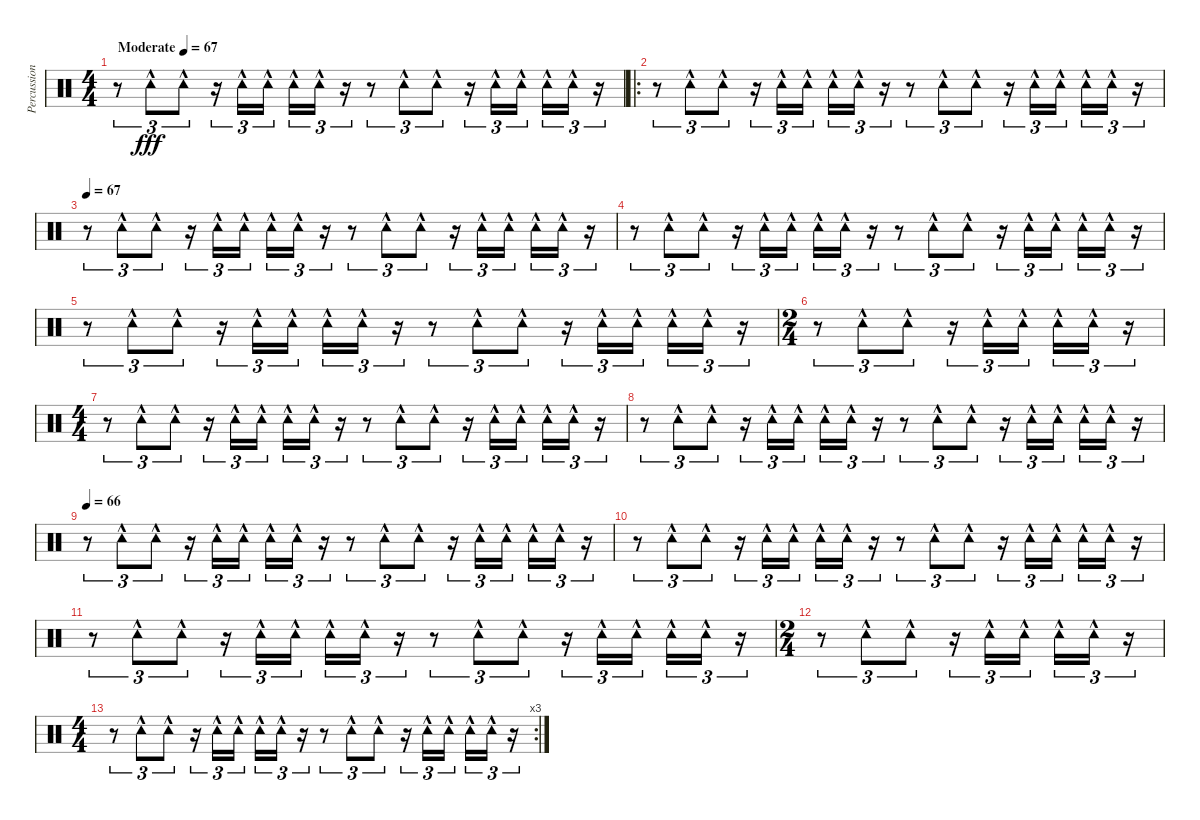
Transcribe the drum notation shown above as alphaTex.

\track ("Percussion" "Percussion") {instrument percussion bank 255}
\staff {score}
\articulation defaults
\ts (4 4)
\tempo (67 "Moderate")
\clef neutral
\ks c
r.8{tu (3 2) dy fff} "Tambourine (hit)"{hac}.8{tu (3 2)} "Tambourine (hit)"{hac}.8{tu (3 2)} r.16{tu (3 2)} "Tambourine (hit)"{hac}.16{tu (3 2)} "Tambourine (hit)"{hac}.16{tu (3 2) beam splitsecondary} "Tambourine (hit)"{hac}.16{tu (3 2)} "Tambourine (hit)"{hac}.16{tu (3 2)} r.16{tu (3 2)} r.8{tu (3 2)} "Tambourine (hit)"{hac}.8{tu (3 2)} "Tambourine (hit)"{hac}.8{tu (3 2)} r.16{tu (3 2)} "Tambourine (hit)"{hac}.16{tu (3 2)} "Tambourine (hit)"{hac}.16{tu (3 2) beam splitsecondary} "Tambourine (hit)"{hac}.16{tu (3 2)} "Tambourine (hit)"{hac}.16{tu (3 2)} r.16{tu (3 2)} |
\ro
r.8{tu (3 2)} "Tambourine (hit)"{hac}.8{tu (3 2)} "Tambourine (hit)"{hac}.8{tu (3 2)} r.16{tu (3 2)} "Tambourine (hit)"{hac}.16{tu (3 2)} "Tambourine (hit)"{hac}.16{tu (3 2) beam splitsecondary} "Tambourine (hit)"{hac}.16{tu (3 2)} "Tambourine (hit)"{hac}.16{tu (3 2)} r.16{tu (3 2)} r.8{tu (3 2)} "Tambourine (hit)"{hac}.8{tu (3 2)} "Tambourine (hit)"{hac}.8{tu (3 2)} r.16{tu (3 2)} "Tambourine (hit)"{hac}.16{tu (3 2)} "Tambourine (hit)"{hac}.16{tu (3 2) beam splitsecondary} "Tambourine (hit)"{hac}.16{tu (3 2)} "Tambourine (hit)"{hac}.16{tu (3 2)} r.16{tu (3 2)} |
\tempo 67
r.8{tu (3 2)} "Tambourine (hit)"{hac}.8{tu (3 2)} "Tambourine (hit)"{hac}.8{tu (3 2)} r.16{tu (3 2)} "Tambourine (hit)"{hac}.16{tu (3 2)} "Tambourine (hit)"{hac}.16{tu (3 2) beam splitsecondary} "Tambourine (hit)"{hac}.16{tu (3 2)} "Tambourine (hit)"{hac}.16{tu (3 2)} r.16{tu (3 2)} r.8{tu (3 2)} "Tambourine (hit)"{hac}.8{tu (3 2)} "Tambourine (hit)"{hac}.8{tu (3 2)} r.16{tu (3 2)} "Tambourine (hit)"{hac}.16{tu (3 2)} "Tambourine (hit)"{hac}.16{tu (3 2) beam splitsecondary} "Tambourine (hit)"{hac}.16{tu (3 2)} "Tambourine (hit)"{hac}.16{tu (3 2)} r.16{tu (3 2)} |
r.8{tu (3 2)} "Tambourine (hit)"{hac}.8{tu (3 2)} "Tambourine (hit)"{hac}.8{tu (3 2)} r.16{tu (3 2)} "Tambourine (hit)"{hac}.16{tu (3 2)} "Tambourine (hit)"{hac}.16{tu (3 2) beam splitsecondary} "Tambourine (hit)"{hac}.16{tu (3 2)} "Tambourine (hit)"{hac}.16{tu (3 2)} r.16{tu (3 2)} r.8{tu (3 2)} "Tambourine (hit)"{hac}.8{tu (3 2)} "Tambourine (hit)"{hac}.8{tu (3 2)} r.16{tu (3 2)} "Tambourine (hit)"{hac}.16{tu (3 2)} "Tambourine (hit)"{hac}.16{tu (3 2) beam splitsecondary} "Tambourine (hit)"{hac}.16{tu (3 2)} "Tambourine (hit)"{hac}.16{tu (3 2)} r.16{tu (3 2)} |
r.8{tu (3 2)} "Tambourine (hit)"{hac}.8{tu (3 2)} "Tambourine (hit)"{hac}.8{tu (3 2)} r.16{tu (3 2)} "Tambourine (hit)"{hac}.16{tu (3 2)} "Tambourine (hit)"{hac}.16{tu (3 2) beam splitsecondary} "Tambourine (hit)"{hac}.16{tu (3 2)} "Tambourine (hit)"{hac}.16{tu (3 2)} r.16{tu (3 2)} r.8{tu (3 2)} "Tambourine (hit)"{hac}.8{tu (3 2)} "Tambourine (hit)"{hac}.8{tu (3 2)} r.16{tu (3 2)} "Tambourine (hit)"{hac}.16{tu (3 2)} "Tambourine (hit)"{hac}.16{tu (3 2) beam splitsecondary} "Tambourine (hit)"{hac}.16{tu (3 2)} "Tambourine (hit)"{hac}.16{tu (3 2)} r.16{tu (3 2)} |
\ts (2 4)
r.8{tu (3 2)} "Tambourine (hit)"{hac}.8{tu (3 2)} "Tambourine (hit)"{hac}.8{tu (3 2)} r.16{tu (3 2)} "Tambourine (hit)"{hac}.16{tu (3 2)} "Tambourine (hit)"{hac}.16{tu (3 2) beam splitsecondary} "Tambourine (hit)"{hac}.16{tu (3 2)} "Tambourine (hit)"{hac}.16{tu (3 2)} r.16{tu (3 2)} |
\ts (4 4)
r.8{tu (3 2)} "Tambourine (hit)"{hac}.8{tu (3 2)} "Tambourine (hit)"{hac}.8{tu (3 2)} r.16{tu (3 2)} "Tambourine (hit)"{hac}.16{tu (3 2)} "Tambourine (hit)"{hac}.16{tu (3 2) beam splitsecondary} "Tambourine (hit)"{hac}.16{tu (3 2)} "Tambourine (hit)"{hac}.16{tu (3 2)} r.16{tu (3 2)} r.8{tu (3 2)} "Tambourine (hit)"{hac}.8{tu (3 2)} "Tambourine (hit)"{hac}.8{tu (3 2)} r.16{tu (3 2)} "Tambourine (hit)"{hac}.16{tu (3 2)} "Tambourine (hit)"{hac}.16{tu (3 2) beam splitsecondary} "Tambourine (hit)"{hac}.16{tu (3 2)} "Tambourine (hit)"{hac}.16{tu (3 2)} r.16{tu (3 2)} |
r.8{tu (3 2)} "Tambourine (hit)"{hac}.8{tu (3 2)} "Tambourine (hit)"{hac}.8{tu (3 2)} r.16{tu (3 2)} "Tambourine (hit)"{hac}.16{tu (3 2)} "Tambourine (hit)"{hac}.16{tu (3 2) beam splitsecondary} "Tambourine (hit)"{hac}.16{tu (3 2)} "Tambourine (hit)"{hac}.16{tu (3 2)} r.16{tu (3 2)} r.8{tu (3 2)} "Tambourine (hit)"{hac}.8{tu (3 2)} "Tambourine (hit)"{hac}.8{tu (3 2)} r.16{tu (3 2)} "Tambourine (hit)"{hac}.16{tu (3 2)} "Tambourine (hit)"{hac}.16{tu (3 2) beam splitsecondary} "Tambourine (hit)"{hac}.16{tu (3 2)} "Tambourine (hit)"{hac}.16{tu (3 2)} r.16{tu (3 2)} |
\tempo 66
r.8{tu (3 2)} "Tambourine (hit)"{hac}.8{tu (3 2)} "Tambourine (hit)"{hac}.8{tu (3 2)} r.16{tu (3 2)} "Tambourine (hit)"{hac}.16{tu (3 2)} "Tambourine (hit)"{hac}.16{tu (3 2) beam splitsecondary} "Tambourine (hit)"{hac}.16{tu (3 2)} "Tambourine (hit)"{hac}.16{tu (3 2)} r.16{tu (3 2)} r.8{tu (3 2)} "Tambourine (hit)"{hac}.8{tu (3 2)} "Tambourine (hit)"{hac}.8{tu (3 2)} r.16{tu (3 2)} "Tambourine (hit)"{hac}.16{tu (3 2)} "Tambourine (hit)"{hac}.16{tu (3 2) beam splitsecondary} "Tambourine (hit)"{hac}.16{tu (3 2)} "Tambourine (hit)"{hac}.16{tu (3 2)} r.16{tu (3 2)} |
r.8{tu (3 2)} "Tambourine (hit)"{hac}.8{tu (3 2)} "Tambourine (hit)"{hac}.8{tu (3 2)} r.16{tu (3 2)} "Tambourine (hit)"{hac}.16{tu (3 2)} "Tambourine (hit)"{hac}.16{tu (3 2) beam splitsecondary} "Tambourine (hit)"{hac}.16{tu (3 2)} "Tambourine (hit)"{hac}.16{tu (3 2)} r.16{tu (3 2)} r.8{tu (3 2)} "Tambourine (hit)"{hac}.8{tu (3 2)} "Tambourine (hit)"{hac}.8{tu (3 2)} r.16{tu (3 2)} "Tambourine (hit)"{hac}.16{tu (3 2)} "Tambourine (hit)"{hac}.16{tu (3 2) beam splitsecondary} "Tambourine (hit)"{hac}.16{tu (3 2)} "Tambourine (hit)"{hac}.16{tu (3 2)} r.16{tu (3 2)} |
r.8{tu (3 2)} "Tambourine (hit)"{hac}.8{tu (3 2)} "Tambourine (hit)"{hac}.8{tu (3 2)} r.16{tu (3 2)} "Tambourine (hit)"{hac}.16{tu (3 2)} "Tambourine (hit)"{hac}.16{tu (3 2) beam splitsecondary} "Tambourine (hit)"{hac}.16{tu (3 2)} "Tambourine (hit)"{hac}.16{tu (3 2)} r.16{tu (3 2)} r.8{tu (3 2)} "Tambourine (hit)"{hac}.8{tu (3 2)} "Tambourine (hit)"{hac}.8{tu (3 2)} r.16{tu (3 2)} "Tambourine (hit)"{hac}.16{tu (3 2)} "Tambourine (hit)"{hac}.16{tu (3 2) beam splitsecondary} "Tambourine (hit)"{hac}.16{tu (3 2)} "Tambourine (hit)"{hac}.16{tu (3 2)} r.16{tu (3 2)} |
\ts (2 4)
r.8{tu (3 2)} "Tambourine (hit)"{hac}.8{tu (3 2)} "Tambourine (hit)"{hac}.8{tu (3 2)} r.16{tu (3 2)} "Tambourine (hit)"{hac}.16{tu (3 2)} "Tambourine (hit)"{hac}.16{tu (3 2) beam splitsecondary} "Tambourine (hit)"{hac}.16{tu (3 2)} "Tambourine (hit)"{hac}.16{tu (3 2)} r.16{tu (3 2)} |
\rc 3
\ts (4 4)
r.8{tu (3 2)} "Tambourine (hit)"{hac}.8{tu (3 2)} "Tambourine (hit)"{hac}.8{tu (3 2)} r.16{tu (3 2)} "Tambourine (hit)"{hac}.16{tu (3 2)} "Tambourine (hit)"{hac}.16{tu (3 2) beam splitsecondary} "Tambourine (hit)"{hac}.16{tu (3 2)} "Tambourine (hit)"{hac}.16{tu (3 2)} r.16{tu (3 2)} r.8{tu (3 2)} "Tambourine (hit)"{hac}.8{tu (3 2)} "Tambourine (hit)"{hac}.8{tu (3 2)} r.16{tu (3 2)} "Tambourine (hit)"{hac}.16{tu (3 2)} "Tambourine (hit)"{hac}.16{tu (3 2) beam splitsecondary} "Tambourine (hit)"{hac}.16{tu (3 2)} "Tambourine (hit)"{hac}.16{tu (3 2)} r.16{tu (3 2)}
